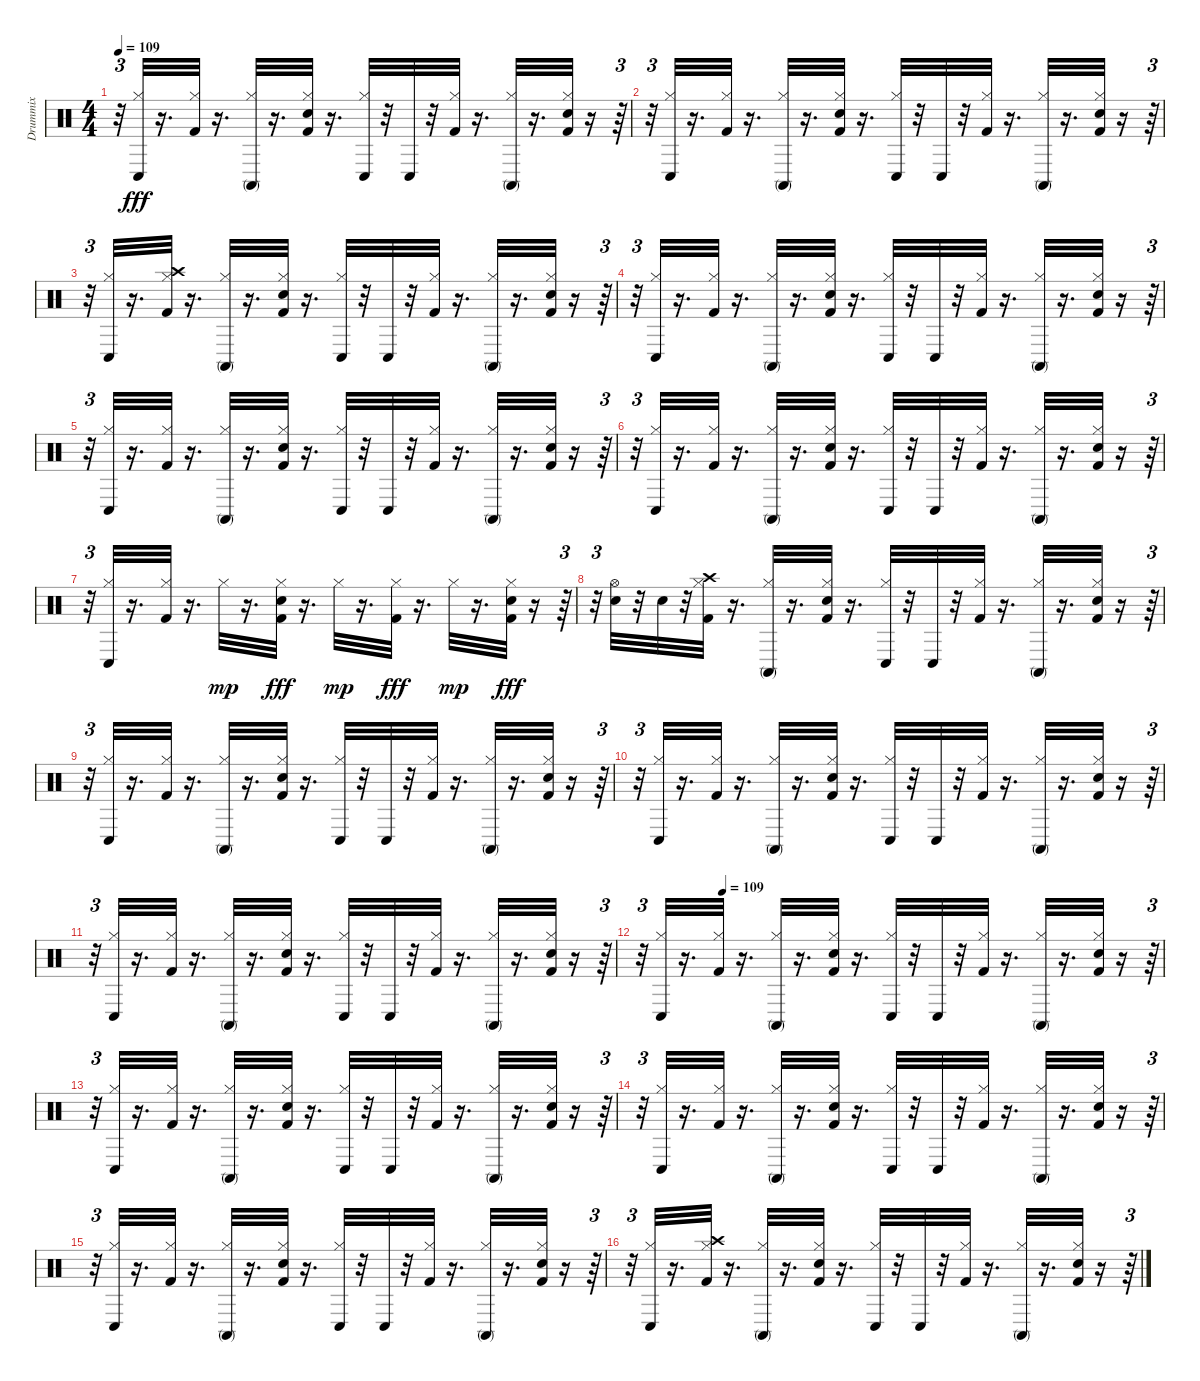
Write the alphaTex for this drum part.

\track ("Drummix" "Drummix") {instrument percussion}
\staff {score}
\articulation defaults
\ts (4 4)
\tempo 109
\clef neutral
\ks c
r.32{tu (3 2) dy fff} ("Hi-Hat (closed)" "Conga low (hit)").32 r.16{d} ("Kick (hit) 2" "Hi-Hat (closed)").32 r.16{d} ("Hi-Hat (closed)" "Conga high (mute)").32 r.16{d} ("Kick (hit) 2" "Snare (hit) 2" "Hi-Hat (closed)").32 r.16{d} ("Hi-Hat (closed)" "Conga low (hit)").32 r.32 "Conga low (hit)".32 r.32 ("Kick (hit) 2" "Hi-Hat (closed)").32 r.16{d} ("Hi-Hat (closed)" "Conga high (mute)").32 r.16{d} ("Kick (hit) 2" "Snare (hit) 2" "Hi-Hat (closed)").32 r.16 r.64{tu (3 2)} |
r.32{tu (3 2)} ("Hi-Hat (closed)" "Conga low (hit)").32 r.16{d} ("Kick (hit) 2" "Hi-Hat (closed)").32 r.16{d} ("Hi-Hat (closed)" "Conga high (mute)").32 r.16{d} ("Kick (hit) 2" "Snare (hit) 2" "Hi-Hat (closed)").32 r.16{d} ("Hi-Hat (closed)" "Conga low (hit)").32 r.32 "Conga low (hit)".32 r.32 ("Kick (hit) 2" "Hi-Hat (closed)").32 r.16{d} ("Hi-Hat (closed)" "Conga high (mute)").32 r.16{d} ("Kick (hit) 2" "Snare (hit) 2" "Hi-Hat (closed)").32 r.16 r.64{tu (3 2)} |
r.32{tu (3 2)} ("Hi-Hat (closed)" "Conga low (hit)").32 r.16{d} ("Kick (hit) 2" "Hi-Hat (closed)" "Crash high (hit)").32 r.16{d} ("Hi-Hat (closed)" "Conga high (mute)").32 r.16{d} ("Kick (hit) 2" "Snare (hit) 2" "Hi-Hat (closed)").32 r.16{d} ("Hi-Hat (closed)" "Conga low (hit)").32 r.32 "Conga low (hit)".32 r.32 ("Kick (hit) 2" "Hi-Hat (closed)").32 r.16{d} ("Hi-Hat (closed)" "Conga high (mute)").32 r.16{d} ("Kick (hit) 2" "Snare (hit) 2" "Hi-Hat (closed)").32 r.16 r.64{tu (3 2)} |
r.32{tu (3 2)} ("Hi-Hat (closed)" "Conga low (hit)").32 r.16{d} ("Kick (hit) 2" "Hi-Hat (closed)").32 r.16{d} ("Hi-Hat (closed)" "Conga high (mute)").32 r.16{d} ("Kick (hit) 2" "Snare (hit) 2" "Hi-Hat (closed)").32 r.16{d} ("Hi-Hat (closed)" "Conga low (hit)").32 r.32 "Conga low (hit)".32 r.32 ("Kick (hit) 2" "Hi-Hat (closed)").32 r.16{d} ("Hi-Hat (closed)" "Conga high (mute)").32 r.16{d} ("Kick (hit) 2" "Snare (hit) 2" "Hi-Hat (closed)").32 r.16 r.64{tu (3 2)} |
r.32{tu (3 2)} ("Hi-Hat (closed)" "Conga low (hit)").32 r.16{d} ("Kick (hit) 2" "Hi-Hat (closed)").32 r.16{d} ("Hi-Hat (closed)" "Conga high (mute)").32 r.16{d} ("Kick (hit) 2" "Snare (hit) 2" "Hi-Hat (closed)").32 r.16{d} ("Hi-Hat (closed)" "Conga low (hit)").32 r.32 "Conga low (hit)".32 r.32 ("Kick (hit) 2" "Hi-Hat (closed)").32 r.16{d} ("Hi-Hat (closed)" "Conga high (mute)").32 r.16{d} ("Kick (hit) 2" "Snare (hit) 2" "Hi-Hat (closed)").32 r.16 r.64{tu (3 2)} |
r.32{tu (3 2)} ("Hi-Hat (closed)" "Conga low (hit)").32 r.16{d} ("Kick (hit) 2" "Hi-Hat (closed)").32 r.16{d} ("Hi-Hat (closed)" "Conga high (mute)").32 r.16{d} ("Kick (hit) 2" "Snare (hit) 2" "Hi-Hat (closed)").32 r.16{d} ("Hi-Hat (closed)" "Conga low (hit)").32 r.32 "Conga low (hit)".32 r.32 ("Kick (hit) 2" "Hi-Hat (closed)").32 r.16{d} ("Hi-Hat (closed)" "Conga high (mute)").32 r.16{d} ("Kick (hit) 2" "Snare (hit) 2" "Hi-Hat (closed)").32 r.16 r.64{tu (3 2)} |
r.32{tu (3 2)} ("Hi-Hat (closed)" "Conga low (hit)").32 r.16{d} ("Kick (hit) 2" "Hi-Hat (closed)").32 r.16{d} "Hi-Hat (closed)".32{dy mp} r.16{d} ("Kick (hit) 2" "Snare (hit) 2" "Hi-Hat (closed)").32{dy fff} r.16{d} "Hi-Hat (closed)".32{dy mp} r.16{d} ("Kick (hit) 2" "Hi-Hat (closed)").32{dy fff} r.16{d} "Hi-Hat (closed)".32{dy mp} r.16{d} ("Kick (hit) 2" "Snare (hit) 2" "Hi-Hat (closed)").32{dy fff} r.16 r.64{tu (3 2)} |
r.32{tu (3 2)} ("Snare (hit) 2" "Hi-Hat (open)").32 r.32 "Snare (hit) 2".32 r.32 ("Kick (hit) 2" "Hi-Hat (closed)" "Crash high (hit)").32 r.16{d} ("Hi-Hat (closed)" "Conga high (mute)").32 r.16{d} ("Kick (hit) 2" "Snare (hit) 2" "Hi-Hat (closed)").32 r.16{d} ("Hi-Hat (closed)" "Conga low (hit)").32 r.32 "Conga low (hit)".32 r.32 ("Kick (hit) 2" "Hi-Hat (closed)").32 r.16{d} ("Hi-Hat (closed)" "Conga high (mute)").32 r.16{d} ("Kick (hit) 2" "Snare (hit) 2" "Hi-Hat (closed)").32 r.16 r.64{tu (3 2)} |
r.32{tu (3 2)} ("Hi-Hat (closed)" "Conga low (hit)").32 r.16{d} ("Kick (hit) 2" "Hi-Hat (closed)").32 r.16{d} ("Hi-Hat (closed)" "Conga high (mute)").32 r.16{d} ("Kick (hit) 2" "Snare (hit) 2" "Hi-Hat (closed)").32 r.16{d} ("Hi-Hat (closed)" "Conga low (hit)").32 r.32 "Conga low (hit)".32 r.32 ("Kick (hit) 2" "Hi-Hat (closed)").32 r.16{d} ("Hi-Hat (closed)" "Conga high (mute)").32 r.16{d} ("Kick (hit) 2" "Snare (hit) 2" "Hi-Hat (closed)").32 r.16 r.64{tu (3 2)} |
r.32{tu (3 2)} ("Hi-Hat (closed)" "Conga low (hit)").32 r.16{d} ("Kick (hit) 2" "Hi-Hat (closed)").32 r.16{d} ("Hi-Hat (closed)" "Conga high (mute)").32 r.16{d} ("Kick (hit) 2" "Snare (hit) 2" "Hi-Hat (closed)").32 r.16{d} ("Hi-Hat (closed)" "Conga low (hit)").32 r.32 "Conga low (hit)".32 r.32 ("Kick (hit) 2" "Hi-Hat (closed)").32 r.16{d} ("Hi-Hat (closed)" "Conga high (mute)").32 r.16{d} ("Kick (hit) 2" "Snare (hit) 2" "Hi-Hat (closed)").32 r.16 r.64{tu (3 2)} |
r.32{tu (3 2)} ("Hi-Hat (closed)" "Conga low (hit)").32 r.16{d} ("Kick (hit) 2" "Hi-Hat (closed)").32 r.16{d} ("Hi-Hat (closed)" "Conga high (mute)").32 r.16{d} ("Kick (hit) 2" "Snare (hit) 2" "Hi-Hat (closed)").32 r.16{d} ("Hi-Hat (closed)" "Conga low (hit)").32 r.32 "Conga low (hit)".32 r.32 ("Kick (hit) 2" "Hi-Hat (closed)").32 r.16{d} ("Hi-Hat (closed)" "Conga high (mute)").32 r.16{d} ("Kick (hit) 2" "Snare (hit) 2" "Hi-Hat (closed)").32 r.16 r.64{tu (3 2)} |
\tempo (109 0.15625)
r.32{tu (3 2)} ("Hi-Hat (closed)" "Conga low (hit)").32 r.16{d} ("Kick (hit) 2" "Hi-Hat (closed)").32 r.16{d} ("Hi-Hat (closed)" "Conga high (mute)").32 r.16{d} ("Kick (hit) 2" "Snare (hit) 2" "Hi-Hat (closed)").32 r.16{d} ("Hi-Hat (closed)" "Conga low (hit)").32 r.32 "Conga low (hit)".32 r.32 ("Kick (hit) 2" "Hi-Hat (closed)").32 r.16{d} ("Hi-Hat (closed)" "Conga high (mute)").32 r.16{d} ("Kick (hit) 2" "Snare (hit) 2" "Hi-Hat (closed)").32 r.16 r.64{tu (3 2)} |
r.32{tu (3 2)} ("Hi-Hat (closed)" "Conga low (hit)").32 r.16{d} ("Kick (hit) 2" "Hi-Hat (closed)").32 r.16{d} ("Hi-Hat (closed)" "Conga high (mute)").32 r.16{d} ("Kick (hit) 2" "Snare (hit) 2" "Hi-Hat (closed)").32 r.16{d} ("Hi-Hat (closed)" "Conga low (hit)").32 r.32 "Conga low (hit)".32 r.32 ("Kick (hit) 2" "Hi-Hat (closed)").32 r.16{d} ("Hi-Hat (closed)" "Conga high (mute)").32 r.16{d} ("Kick (hit) 2" "Snare (hit) 2" "Hi-Hat (closed)").32 r.16 r.64{tu (3 2)} |
r.32{tu (3 2)} ("Hi-Hat (closed)" "Conga low (hit)").32 r.16{d} ("Kick (hit) 2" "Hi-Hat (closed)").32 r.16{d} ("Hi-Hat (closed)" "Conga high (mute)").32 r.16{d} ("Kick (hit) 2" "Snare (hit) 2" "Hi-Hat (closed)").32 r.16{d} ("Hi-Hat (closed)" "Conga low (hit)").32 r.32 "Conga low (hit)".32 r.32 ("Kick (hit) 2" "Hi-Hat (closed)").32 r.16{d} ("Hi-Hat (closed)" "Conga high (mute)").32 r.16{d} ("Kick (hit) 2" "Snare (hit) 2" "Hi-Hat (closed)").32 r.16 r.64{tu (3 2)} |
r.32{tu (3 2)} ("Hi-Hat (closed)" "Conga low (hit)").32 r.16{d} ("Kick (hit) 2" "Hi-Hat (closed)").32 r.16{d} ("Hi-Hat (closed)" "Conga high (mute)").32 r.16{d} ("Kick (hit) 2" "Snare (hit) 2" "Hi-Hat (closed)").32 r.16{d} ("Hi-Hat (closed)" "Conga low (hit)").32 r.32 "Conga low (hit)".32 r.32 ("Kick (hit) 2" "Hi-Hat (closed)").32 r.16{d} ("Hi-Hat (closed)" "Conga high (mute)").32 r.16{d} ("Kick (hit) 2" "Snare (hit) 2" "Hi-Hat (closed)").32 r.16 r.64{tu (3 2)} |
r.32{tu (3 2)} ("Hi-Hat (closed)" "Conga low (hit)").32 r.16{d} ("Kick (hit) 2" "Hi-Hat (closed)" "Crash high (hit)").32 r.16{d} ("Hi-Hat (closed)" "Conga high (mute)").32 r.16{d} ("Kick (hit) 2" "Snare (hit) 2" "Hi-Hat (closed)").32 r.16{d} ("Hi-Hat (closed)" "Conga low (hit)").32 r.32 "Conga low (hit)".32 r.32 ("Kick (hit) 2" "Hi-Hat (closed)").32 r.16{d} ("Hi-Hat (closed)" "Conga high (mute)").32 r.16{d} ("Kick (hit) 2" "Snare (hit) 2" "Hi-Hat (closed)").32 r.16 r.64{tu (3 2)}
